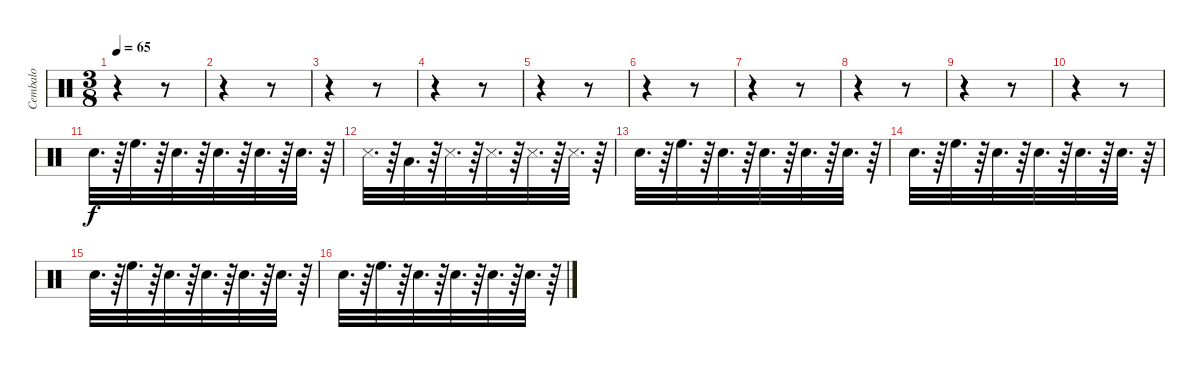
\track ("Cembalo" "Cembalo") {instrument percussion}
\staff {score}
\articulation defaults
\ts (3 8)
\tempo 65
\clef neutral
\ks c
r.4{dy f} r.8 |
r.4 r.8 |
r.4 r.8 |
r.4 r.8 |
r.4 r.8 |
r.4 r.8 |
r.4 r.8 |
r.4 r.8 |
r.4 r.8 |
r.4 r.8 |
"Snare (hit) 2".32{d} r.64 "High Floor Tom (hit)".32{d} r.64 "Snare (hit) 2".32{d} r.64 "Snare (hit)".32{d} r.64 "Snare (hit)".32{d} r.64 "Snare (hit)".32{d} r.64 |
"Metronome (hit)".32{d} r.64 "Low Tom (hit)".32{d} r.64 "Metronome (hit)".32{d} r.64 "Metronome (hit)".32{d} r.64 "Metronome (hit)".32{d} r.64 "Metronome (hit)".32{d} r.64 |
"Snare (hit) 2".32{d} r.64 "High Floor Tom (hit)".32{d} r.64 "Snare (hit) 2".32{d} r.64 "Snare (hit)".32{d} r.64 "Snare (hit)".32{d} r.64 "Snare (hit)".32{d} r.64 |
"Snare (hit) 2".32{d} r.64 "High Floor Tom (hit)".32{d} r.64 "Snare (hit) 2".32{d} r.64 "Snare (hit)".32{d} r.64 "Snare (hit)".32{d} r.64 "Snare (hit)".32{d} r.64 |
"Snare (hit) 2".32{d} r.64 "High Floor Tom (hit)".32{d} r.64 "Snare (hit) 2".32{d} r.64 "Snare (hit)".32{d} r.64 "Snare (hit)".32{d} r.64 "Snare (hit)".32{d} r.64 |
"Snare (hit) 2".32{d} r.64 "High Floor Tom (hit)".32{d} r.64 "Snare (hit) 2".32{d} r.64 "Snare (hit)".32{d} r.64 "Snare (hit)".32{d} r.64 "Snare (hit)".32{d} r.64
